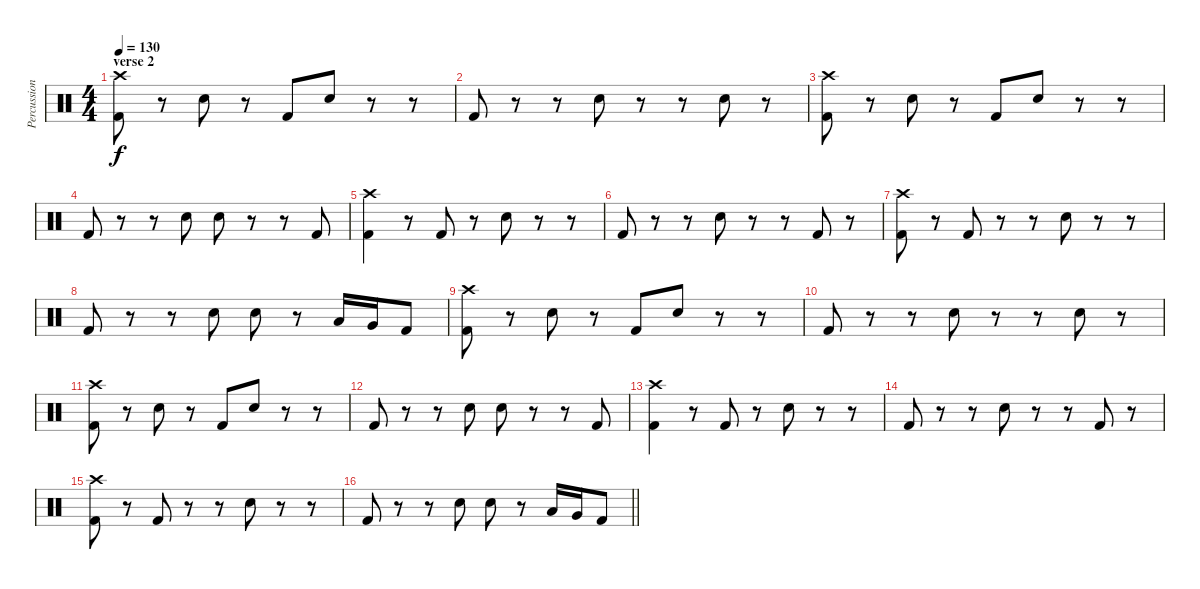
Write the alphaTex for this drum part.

\track ("Percussion" "Percussion") {instrument percussion}
\staff {score}
\articulation defaults
\ts (4 4)
\section ("" "verse 2")
\tempo 130
\clef neutral
\ks c
("Crash high (hit)" "Kick (hit) 2").8{dy f} r.8 "Snare (hit) 2".8 r.8 "Kick (hit) 2".8 "Snare (hit) 2".8 r.8 r.8 |
"Kick (hit) 2".8 r.8 r.8 "Snare (hit) 2".8 r.8 r.8 "Snare (hit) 2".8 r.8 |
("Crash high (hit)" "Kick (hit) 2").8 r.8 "Snare (hit) 2".8 r.8 "Kick (hit) 2".8 "Snare (hit) 2".8 r.8 r.8 |
"Kick (hit) 2".8 r.8 r.8 "Snare (hit) 2".8 "Snare (hit) 2".8 r.8 r.8 "Kick (hit) 2".8 |
("Crash high (hit)" "Kick (hit) 2").4 r.8 "Kick (hit) 2".8 r.8 "Snare (hit) 2".8 r.8 r.8 |
"Kick (hit) 2".8 r.8 r.8 "Snare (hit) 2".8 r.8 r.8 "Kick (hit) 2".8 r.8 |
("Crash high (hit)" "Kick (hit) 2").8 r.8 "Kick (hit) 2".8 r.8 r.8 "Snare (hit) 2".8 r.8 r.8 |
"Kick (hit) 2".8 r.8 r.8 "Snare (hit) 2".8 "Snare (hit) 2".8 r.8 "Low Tom (hit)".16 "Very Low Tom (hit)".16 "Kick (hit) 2".8 |
("Crash high (hit)" "Kick (hit) 2").8 r.8 "Snare (hit) 2".8 r.8 "Kick (hit) 2".8 "Snare (hit) 2".8 r.8 r.8 |
"Kick (hit) 2".8 r.8 r.8 "Snare (hit) 2".8 r.8 r.8 "Snare (hit) 2".8 r.8 |
("Crash high (hit)" "Kick (hit) 2").8 r.8 "Snare (hit) 2".8 r.8 "Kick (hit) 2".8 "Snare (hit) 2".8 r.8 r.8 |
"Kick (hit) 2".8 r.8 r.8 "Snare (hit) 2".8 "Snare (hit) 2".8 r.8 r.8 "Kick (hit) 2".8 |
("Crash high (hit)" "Kick (hit) 2").4 r.8 "Kick (hit) 2".8 r.8 "Snare (hit) 2".8 r.8 r.8 |
"Kick (hit) 2".8 r.8 r.8 "Snare (hit) 2".8 r.8 r.8 "Kick (hit) 2".8 r.8 |
("Crash high (hit)" "Kick (hit) 2").8 r.8 "Kick (hit) 2".8 r.8 r.8 "Snare (hit) 2".8 r.8 r.8 |
\barLineRight lightlight "Kick (hit) 2".8
r.8 r.8 "Snare (hit) 2".8 "Snare (hit) 2".8 r.8 "Low Tom (hit)".16 "Very Low Tom (hit)".16 "Kick (hit) 2".8
